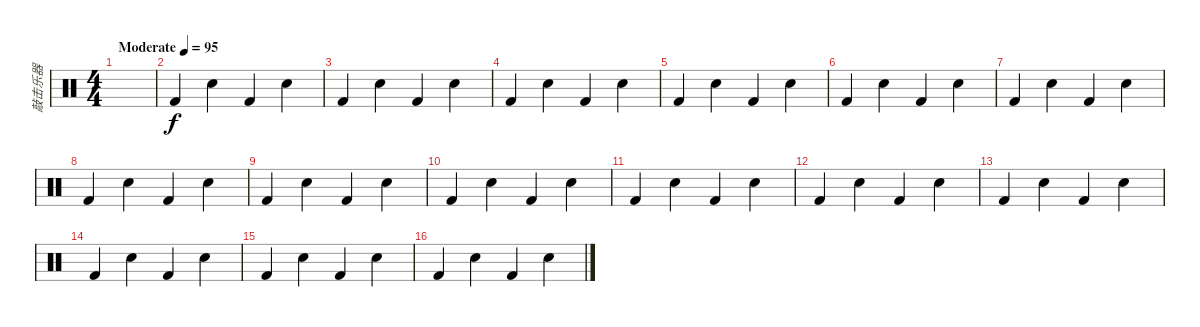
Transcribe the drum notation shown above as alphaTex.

\track ("敲击乐器" "敲击乐器") {instrument percussion}
\staff {score}
\articulation defaults
\ts (4 4)
\tempo (95 "Moderate")
\clef neutral
\ks c
|
"Kick (hit) 2".4 "Electric Snare (hit)".4 "Kick (hit) 2".4 "Electric Snare (hit)".4 |
"Kick (hit) 2".4 "Electric Snare (hit)".4 "Kick (hit) 2".4 "Electric Snare (hit)".4 |
"Kick (hit) 2".4 "Electric Snare (hit)".4 "Kick (hit) 2".4 "Electric Snare (hit)".4 |
"Kick (hit) 2".4 "Electric Snare (hit)".4 "Kick (hit) 2".4 "Electric Snare (hit)".4 |
"Kick (hit) 2".4 "Electric Snare (hit)".4 "Kick (hit) 2".4 "Electric Snare (hit)".4 |
"Kick (hit) 2".4 "Electric Snare (hit)".4 "Kick (hit) 2".4 "Electric Snare (hit)".4 |
"Kick (hit) 2".4 "Electric Snare (hit)".4 "Kick (hit) 2".4 "Electric Snare (hit)".4 |
"Kick (hit) 2".4 "Electric Snare (hit)".4 "Kick (hit) 2".4 "Electric Snare (hit)".4 |
"Kick (hit) 2".4 "Electric Snare (hit)".4 "Kick (hit) 2".4 "Electric Snare (hit)".4 |
"Kick (hit) 2".4 "Electric Snare (hit)".4 "Kick (hit) 2".4 "Electric Snare (hit)".4 |
"Kick (hit) 2".4 "Electric Snare (hit)".4 "Kick (hit) 2".4 "Electric Snare (hit)".4 |
"Kick (hit) 2".4 "Electric Snare (hit)".4 "Kick (hit) 2".4 "Electric Snare (hit)".4 |
"Kick (hit) 2".4 "Electric Snare (hit)".4 "Kick (hit) 2".4 "Electric Snare (hit)".4 |
"Kick (hit) 2".4 "Electric Snare (hit)".4 "Kick (hit) 2".4 "Electric Snare (hit)".4 |
"Kick (hit) 2".4 "Electric Snare (hit)".4 "Kick (hit) 2".4 "Electric Snare (hit)".4
